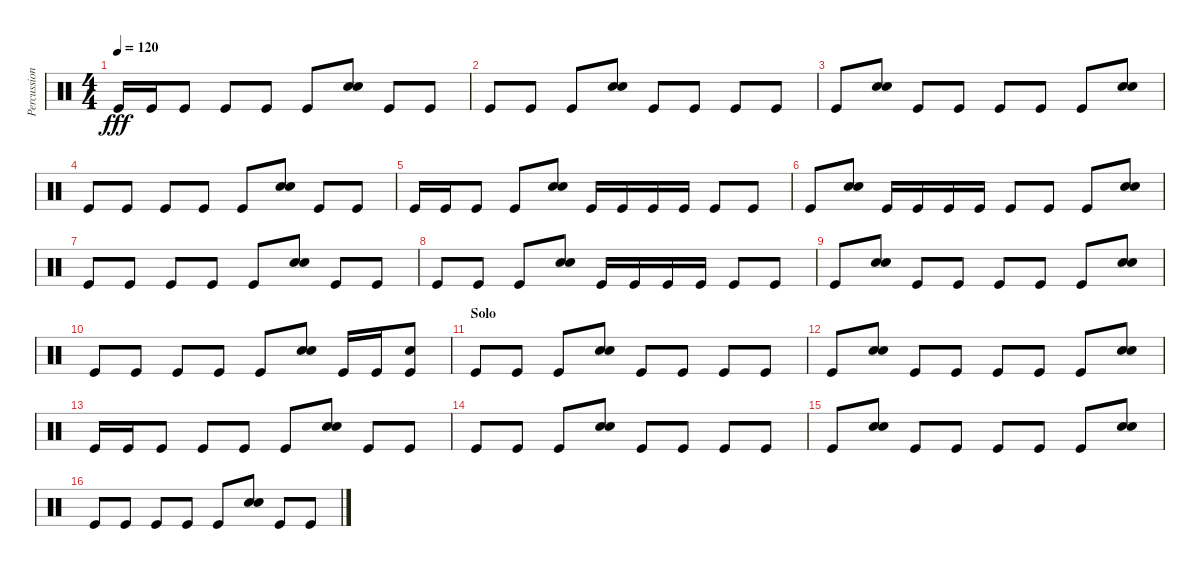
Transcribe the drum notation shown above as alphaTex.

\track ("Percussion" "Percussion") {instrument percussion}
\staff {score}
\articulation defaults
\ts (4 4)
\tempo 120
\clef neutral
\ks c "Kick (hit)".16{dy fff} "Kick (hit)".16 "Kick (hit)".8 "Kick (hit)".8 "Kick (hit)".8 "Kick (hit)".8
("Snare (hit) 2" "Electric Snare (hit)").8 "Kick (hit)".8 "Kick (hit)".8 |
"Kick (hit)".8 "Kick (hit)".8 "Kick (hit)".8 ("Snare (hit) 2" "Electric Snare (hit)").8 "Kick (hit)".8 "Kick (hit)".8 "Kick (hit)".8 "Kick (hit)".8 |
"Kick (hit)".8 ("Snare (hit) 2" "Electric Snare (hit)").8 "Kick (hit)".8 "Kick (hit)".8 "Kick (hit)".8 "Kick (hit)".8 "Kick (hit)".8 ("Snare (hit) 2" "Electric Snare (hit)").8 |
"Kick (hit)".8 "Kick (hit)".8 "Kick (hit)".8 "Kick (hit)".8 "Kick (hit)".8 ("Snare (hit) 2" "Electric Snare (hit)").8 "Kick (hit)".8 "Kick (hit)".8 |
"Kick (hit)".16 "Kick (hit)".16 "Kick (hit)".8 "Kick (hit)".8 ("Snare (hit) 2" "Electric Snare (hit)").8 "Kick (hit)".16 "Kick (hit)".16 "Kick (hit)".16 "Kick (hit)".16 "Kick (hit)".8 "Kick (hit)".8 |
"Kick (hit)".8 ("Snare (hit) 2" "Electric Snare (hit)").8 "Kick (hit)".16 "Kick (hit)".16 "Kick (hit)".16 "Kick (hit)".16 "Kick (hit)".8 "Kick (hit)".8 "Kick (hit)".8 ("Snare (hit) 2" "Electric Snare (hit)").8 |
"Kick (hit)".8 "Kick (hit)".8 "Kick (hit)".8 "Kick (hit)".8 "Kick (hit)".8 ("Snare (hit) 2" "Electric Snare (hit)").8 "Kick (hit)".8 "Kick (hit)".8 |
"Kick (hit)".8 "Kick (hit)".8 "Kick (hit)".8 ("Snare (hit) 2" "Electric Snare (hit)").8 "Kick (hit)".16 "Kick (hit)".16 "Kick (hit)".16 "Kick (hit)".16 "Kick (hit)".8 "Kick (hit)".8 |
"Kick (hit)".8 ("Snare (hit) 2" "Electric Snare (hit)").8 "Kick (hit)".8 "Kick (hit)".8 "Kick (hit)".8 "Kick (hit)".8 "Kick (hit)".8 ("Snare (hit) 2" "Electric Snare (hit)").8 |
"Kick (hit)".8 "Kick (hit)".8 "Kick (hit)".8 "Kick (hit)".8 "Kick (hit)".8 ("Snare (hit) 2" "Electric Snare (hit)").8 "Kick (hit)".16 "Kick (hit)".16 ("Snare (hit) 2" "Kick (hit)").8 |
\section ("" "Solo")
"Kick (hit)".8 "Kick (hit)".8 "Kick (hit)".8 ("Snare (hit) 2" "Electric Snare (hit)").8 "Kick (hit)".8 "Kick (hit)".8 "Kick (hit)".8 "Kick (hit)".8 |
"Kick (hit)".8 ("Snare (hit) 2" "Electric Snare (hit)").8 "Kick (hit)".8 "Kick (hit)".8 "Kick (hit)".8 "Kick (hit)".8 "Kick (hit)".8 ("Snare (hit) 2" "Electric Snare (hit)").8 |
"Kick (hit)".16 "Kick (hit)".16 "Kick (hit)".8 "Kick (hit)".8 "Kick (hit)".8 "Kick (hit)".8 ("Snare (hit) 2" "Electric Snare (hit)").8 "Kick (hit)".8 "Kick (hit)".8 |
"Kick (hit)".8 "Kick (hit)".8 "Kick (hit)".8 ("Snare (hit) 2" "Electric Snare (hit)").8 "Kick (hit)".8 "Kick (hit)".8 "Kick (hit)".8 "Kick (hit)".8 |
"Kick (hit)".8 ("Snare (hit) 2" "Electric Snare (hit)").8 "Kick (hit)".8 "Kick (hit)".8 "Kick (hit)".8 "Kick (hit)".8 "Kick (hit)".8 ("Snare (hit) 2" "Electric Snare (hit)").8 |
"Kick (hit)".8 "Kick (hit)".8 "Kick (hit)".8 "Kick (hit)".8 "Kick (hit)".8 ("Snare (hit) 2" "Electric Snare (hit)").8 "Kick (hit)".8 "Kick (hit)".8
